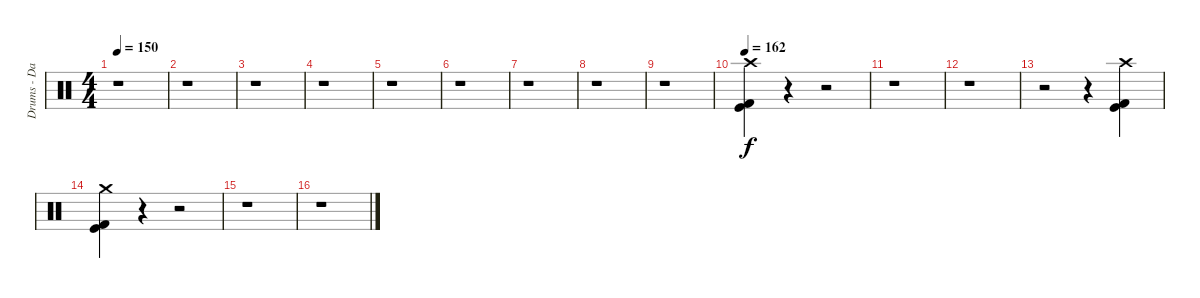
\track ("Drums - Daniel Zimmermann" "Drums - Da") {instrument percussion}
\staff {score}
\articulation defaults
\ts (4 4)
\tempo 150
\clef neutral
\ks c
r.1{dy f} |
r.1 |
r.1 |
r.1 |
r.1 |
r.1 |
r.1 |
r.1 |
r.1 |
\tempo 162
("Kick (hit) 2" "Kick (hit)" "Crash high (hit)").4 r.4 r.2 |
r.1 |
r.1 |
r.2 r.4 ("Kick (hit) 2" "Kick (hit)" "Crash high (hit)").4 |
("Kick (hit) 2" "Kick (hit)" "Crash medium (hit)").4 r.4 r.2 |
r.1 |
r.1
